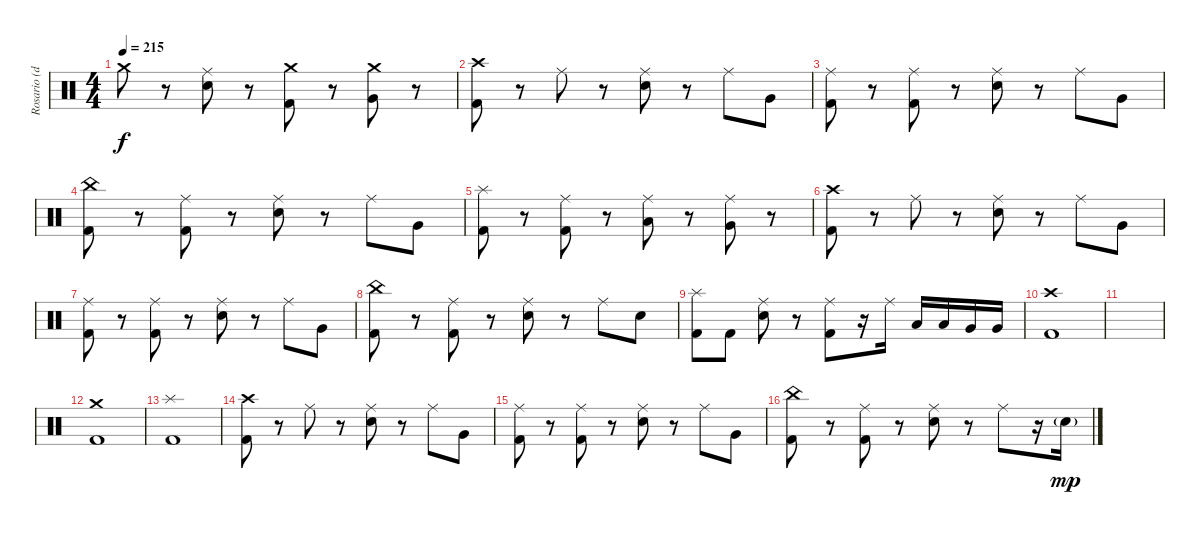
\track ("Rosario (drum)" "Rosario (d") {instrument percussion}
\staff {score}
\articulation defaults
\ts (4 4)
\tempo 215
\clef neutral
\ks c "Crash medium (hit)".8{dy f}
r.8 ("Ride (middle)" "Electric Snare (hit)").8 r.8 ("Crash medium (hit)" "Kick (hit) 2").8 r.8 ("Crash medium (hit)" "Very Low Tom (hit)").8 r.8 |
("Crash high (hit)" "Kick (hit) 2").8 r.8 "Ride (middle)".8 r.8 ("Ride (middle)" "Electric Snare (hit)").8 r.8 "Ride (middle)".8 "Very Low Tom (hit)".8 |
("Ride (middle)" "Kick (hit) 2").8 r.8 ("Ride (middle)" "Kick (hit) 2").8 r.8 ("Ride (middle)" "Electric Snare (hit)").8 r.8 "Ride (middle)".8 "Very Low Tom (hit)".8 |
("China (hit)" "Kick (hit) 2").8 r.8 ("Ride (middle)" "Kick (hit) 2").8 r.8 ("Ride (middle)" "Electric Snare (hit)").8 r.8 "Ride (middle)".8 "Very Low Tom (hit)".8 |
("Splash (hit)" "Kick (hit) 2").8 r.8 ("Ride (middle)" "Kick (hit) 2").8 r.8 ("Ride (middle)" "Low Tom (hit)").8 r.8 ("Ride (middle)" "Very Low Tom (hit)").8 r.8 |
("Crash high (hit)" "Kick (hit) 2").8 r.8 "Ride (middle)".8 r.8 ("Ride (middle)" "Electric Snare (hit)").8 r.8 "Ride (middle)".8 "Very Low Tom (hit)".8 |
("Ride (middle)" "Kick (hit) 2").8 r.8 ("Ride (middle)" "Kick (hit) 2").8 r.8 ("Ride (middle)" "Electric Snare (hit)").8 r.8 "Ride (middle)".8 "Very Low Tom (hit)".8 |
("China (hit)" "Kick (hit) 2").8 r.8 ("Ride (middle)" "Kick (hit) 2").8 r.8 ("Ride (middle)" "Electric Snare (hit)").8 r.8 "Ride (middle)".8 "Electric Snare (hit)".8 |
("Splash (hit)" "Kick (hit) 2").8 "Kick (hit) 2".8 ("Ride (middle)" "Electric Snare (hit)").8 r.8 ("Ride (middle)" "Kick (hit) 2").8 r.16 "Ride (middle)".16 "Low Tom (hit)".16 "Low Tom (hit)".16 "Very Low Tom (hit)".16 "Very Low Tom (hit)".16 |
("Crash high (hit)" "Kick (hit) 2").1 |
|
("Crash medium (hit)" "Kick (hit) 2").1 |
("Splash (hit)" "Kick (hit) 2").1 |
("Crash high (hit)" "Kick (hit) 2").8 r.8 "Ride (middle)".8 r.8 ("Ride (middle)" "Electric Snare (hit)").8 r.8 "Ride (middle)".8 "Very Low Tom (hit)".8 |
("Ride (middle)" "Kick (hit) 2").8 r.8 ("Ride (middle)" "Kick (hit) 2").8 r.8 ("Ride (middle)" "Electric Snare (hit)").8 r.8 "Ride (middle)".8 "Very Low Tom (hit)".8 |
("China (hit)" "Kick (hit) 2").8 r.8 ("Ride (middle)" "Kick (hit) 2").8 r.8 ("Ride (middle)" "Electric Snare (hit)").8 r.8 "Ride (middle)".8 r.16 "Electric Snare (hit)"{g}.16{dy mp}
